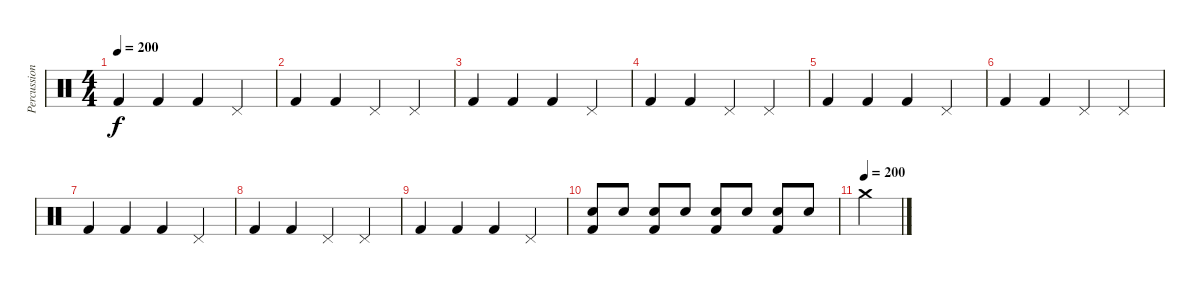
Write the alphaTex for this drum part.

\track ("Percussion" "Percussion") {instrument percussion}
\staff {score}
\articulation defaults
\ts (4 4)
\tempo 200
\clef neutral
\ks c "Kick (hit) 2".4{dy f} "Kick (hit) 2".4 "Kick (hit) 2".4 "Pedal Hi-Hat (hit)".4
|
"Kick (hit) 2".4 "Kick (hit) 2".4 "Pedal Hi-Hat (hit)".4 "Pedal Hi-Hat (hit)".4 |
"Kick (hit) 2".4 "Kick (hit) 2".4 "Kick (hit) 2".4 "Pedal Hi-Hat (hit)".4 |
"Kick (hit) 2".4 "Kick (hit) 2".4 "Pedal Hi-Hat (hit)".4 "Pedal Hi-Hat (hit)".4 |
"Kick (hit) 2".4 "Kick (hit) 2".4 "Kick (hit) 2".4 "Pedal Hi-Hat (hit)".4 |
"Kick (hit) 2".4 "Kick (hit) 2".4 "Pedal Hi-Hat (hit)".4 "Pedal Hi-Hat (hit)".4 |
"Kick (hit) 2".4 "Kick (hit) 2".4 "Kick (hit) 2".4 "Pedal Hi-Hat (hit)".4 |
"Kick (hit) 2".4 "Kick (hit) 2".4 "Pedal Hi-Hat (hit)".4 "Pedal Hi-Hat (hit)".4 |
"Kick (hit) 2".4 "Kick (hit) 2".4 "Kick (hit) 2".4 "Pedal Hi-Hat (hit)".4 |
("Snare (hit) 2" "Kick (hit) 2").8 "Snare (hit) 2".8 ("Snare (hit) 2" "Kick (hit) 2").8 "Snare (hit) 2".8 ("Snare (hit) 2" "Kick (hit) 2").8 "Snare (hit) 2".8 ("Snare (hit) 2" "Kick (hit) 2").8 "Snare (hit) 2".8 |
\tempo (200)
"Crash medium (hit)".4
